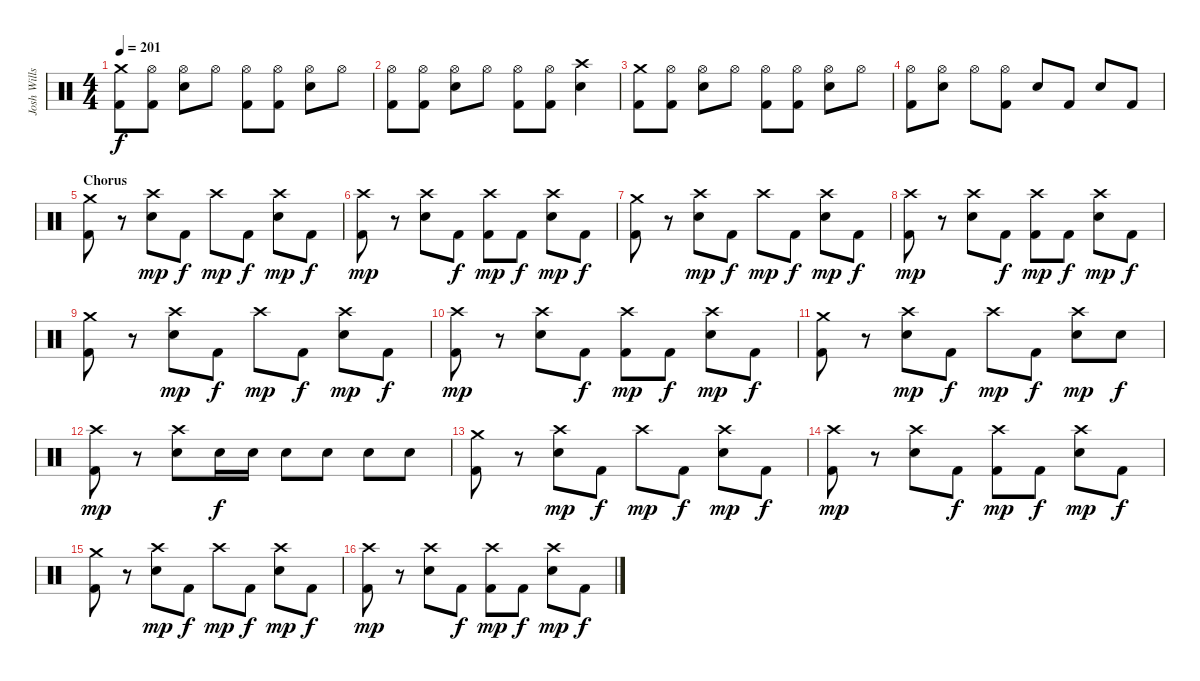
\track ("Josh Wills" "Josh Wills") {instrument percussion}
\staff {score}
\articulation defaults
\ts (4 4)
\tempo 201
\clef neutral
\ks c
("Crash medium (hit)" "Kick (hit) 2").8{dy f} ("Hi-Hat (open)" "Kick (hit) 2").8 ("Hi-Hat (open)" "Snare (hit) 2").8 "Hi-Hat (open)".8 ("Hi-Hat (open)" "Kick (hit) 2").8 ("Hi-Hat (open)" "Kick (hit) 2").8 ("Hi-Hat (open)" "Snare (hit) 2").8 "Hi-Hat (open)".8 |
("Hi-Hat (open)" "Kick (hit) 2").8 ("Hi-Hat (open)" "Kick (hit) 2").8 ("Hi-Hat (open)" "Snare (hit) 2").8 "Hi-Hat (open)".8 ("Hi-Hat (open)" "Kick (hit) 2").8 ("Hi-Hat (open)" "Kick (hit) 2").8 ("Crash high (hit)" "Snare (hit) 2").4 |
("Crash medium (hit)" "Kick (hit) 2").8 ("Hi-Hat (open)" "Kick (hit) 2").8 ("Hi-Hat (open)" "Snare (hit) 2").8 "Hi-Hat (open)".8 ("Hi-Hat (open)" "Kick (hit) 2").8 ("Hi-Hat (open)" "Kick (hit) 2").8 ("Hi-Hat (open)" "Snare (hit) 2").8 "Hi-Hat (open)".8 |
("Hi-Hat (open)" "Kick (hit) 2").8 ("Hi-Hat (open)" "Snare (hit) 2").8 "Hi-Hat (open)".8 ("Hi-Hat (open)" "Kick (hit) 2").8 "Snare (hit) 2".8 "Kick (hit) 2".8 "Snare (hit) 2".8 "Kick (hit) 2".8 |
\section ("" "Chorus")
("Crash medium (hit)" "Kick (hit) 2").8 r.8 ("Crash high (hit)" "Snare (hit) 2").8{dy mp} "Kick (hit) 2".8{dy f} "Crash high (hit)".8{dy mp} "Kick (hit) 2".8{dy f} ("Crash high (hit)" "Snare (hit) 2").8{dy mp} "Kick (hit) 2".8{dy f} |
("Crash high (hit)" "Kick (hit) 2").8{dy mp} r.8 ("Crash high (hit)" "Snare (hit) 2").8 "Kick (hit) 2".8{dy f} ("Crash high (hit)" "Kick (hit) 2").8{dy mp} "Kick (hit) 2".8{dy f} ("Crash high (hit)" "Snare (hit) 2").8{dy mp} "Kick (hit) 2".8{dy f} |
("Crash medium (hit)" "Kick (hit) 2").8 r.8 ("Crash high (hit)" "Snare (hit) 2").8{dy mp} "Kick (hit) 2".8{dy f} "Crash high (hit)".8{dy mp} "Kick (hit) 2".8{dy f} ("Crash high (hit)" "Snare (hit) 2").8{dy mp} "Kick (hit) 2".8{dy f} |
("Crash high (hit)" "Kick (hit) 2").8{dy mp} r.8 ("Crash high (hit)" "Snare (hit) 2").8 "Kick (hit) 2".8{dy f} ("Crash high (hit)" "Kick (hit) 2").8{dy mp} "Kick (hit) 2".8{dy f} ("Crash high (hit)" "Snare (hit) 2").8{dy mp} "Kick (hit) 2".8{dy f} |
("Crash medium (hit)" "Kick (hit) 2").8 r.8 ("Crash high (hit)" "Snare (hit) 2").8{dy mp} "Kick (hit) 2".8{dy f} "Crash high (hit)".8{dy mp} "Kick (hit) 2".8{dy f} ("Crash high (hit)" "Snare (hit) 2").8{dy mp} "Kick (hit) 2".8{dy f} |
("Crash high (hit)" "Kick (hit) 2").8{dy mp} r.8 ("Crash high (hit)" "Snare (hit) 2").8 "Kick (hit) 2".8{dy f} ("Crash high (hit)" "Kick (hit) 2").8{dy mp} "Kick (hit) 2".8{dy f} ("Crash high (hit)" "Snare (hit) 2").8{dy mp} "Kick (hit) 2".8{dy f} |
("Crash medium (hit)" "Kick (hit) 2").8 r.8 ("Crash high (hit)" "Snare (hit) 2").8{dy mp} "Kick (hit) 2".8{dy f} "Crash high (hit)".8{dy mp} "Kick (hit) 2".8{dy f} ("Crash high (hit)" "Snare (hit) 2").8{dy mp} "Snare (hit) 2".8{dy f} |
("Crash high (hit)" "Kick (hit) 2").8{dy mp} r.8 ("Crash high (hit)" "Snare (hit) 2").8 "Snare (hit) 2".16{dy f} "Snare (hit) 2".16 "Snare (hit) 2".8 "Snare (hit) 2".8 "Snare (hit) 2".8 "Snare (hit) 2".8 |
("Crash medium (hit)" "Kick (hit) 2").8 r.8 ("Crash high (hit)" "Snare (hit) 2").8{dy mp} "Kick (hit) 2".8{dy f} "Crash high (hit)".8{dy mp} "Kick (hit) 2".8{dy f} ("Crash high (hit)" "Snare (hit) 2").8{dy mp} "Kick (hit) 2".8{dy f} |
("Crash high (hit)" "Kick (hit) 2").8{dy mp} r.8 ("Crash high (hit)" "Snare (hit) 2").8 "Kick (hit) 2".8{dy f} ("Crash high (hit)" "Kick (hit) 2").8{dy mp} "Kick (hit) 2".8{dy f} ("Crash high (hit)" "Snare (hit) 2").8{dy mp} "Kick (hit) 2".8{dy f} |
("Crash medium (hit)" "Kick (hit) 2").8 r.8 ("Crash high (hit)" "Snare (hit) 2").8{dy mp} "Kick (hit) 2".8{dy f} "Crash high (hit)".8{dy mp} "Kick (hit) 2".8{dy f} ("Crash high (hit)" "Snare (hit) 2").8{dy mp} "Kick (hit) 2".8{dy f} |
("Crash high (hit)" "Kick (hit) 2").8{dy mp} r.8 ("Crash high (hit)" "Snare (hit) 2").8 "Kick (hit) 2".8{dy f} ("Crash high (hit)" "Kick (hit) 2").8{dy mp} "Kick (hit) 2".8{dy f} ("Crash high (hit)" "Snare (hit) 2").8{dy mp} "Kick (hit) 2".8{dy f}
